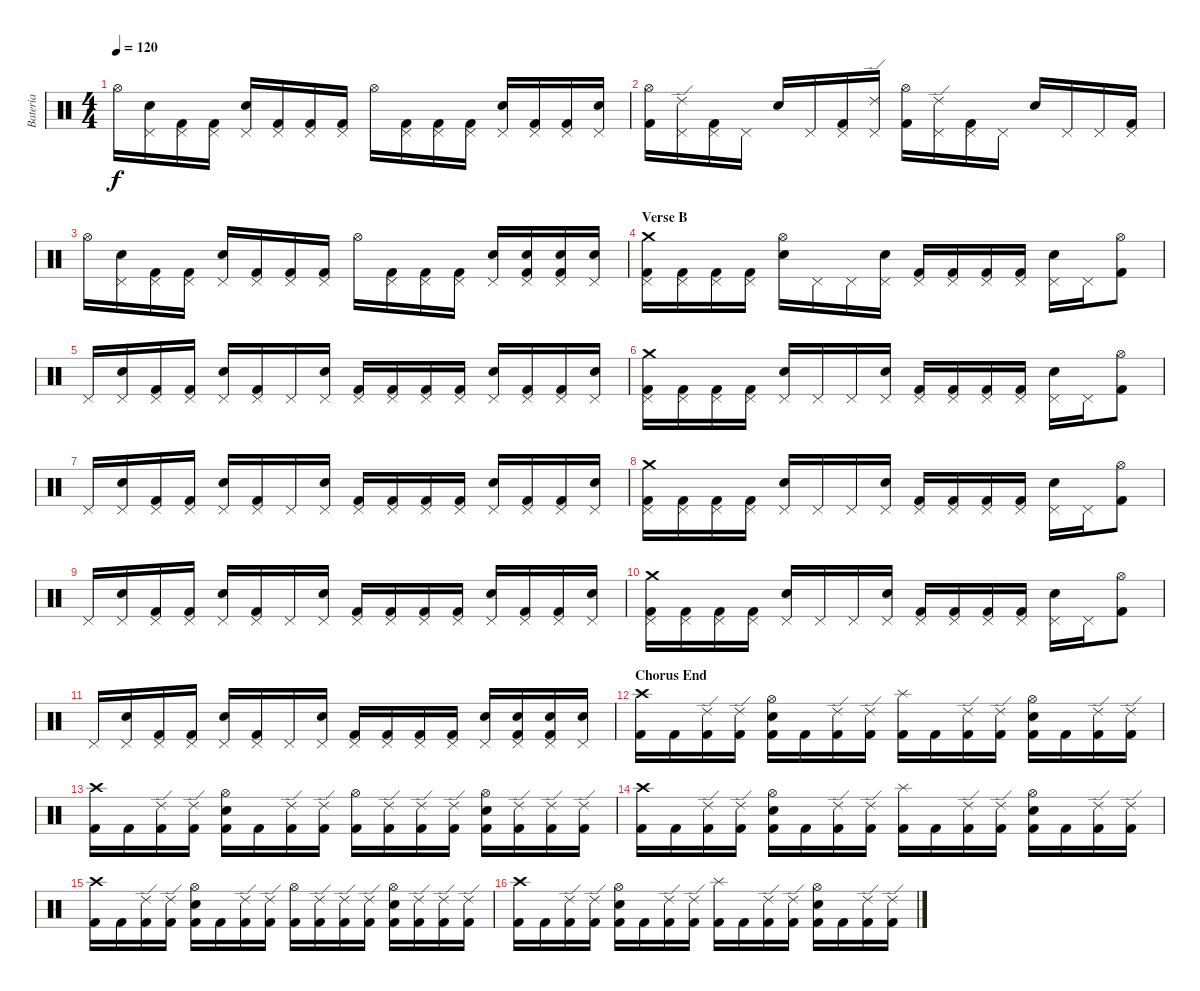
\track ("Bateria" "Bateria") {instrument percussion}
\staff {score}
\articulation defaults
\ts (4 4)
\tempo 120
\clef neutral
\ks c "Hi-Hat (open)".16{dy f}
("Snare (hit) 2" "Pedal Hi-Hat (hit)").16 ("Kick (hit) 2" "Pedal Hi-Hat (hit)").16 ("Kick (hit) 2" "Pedal Hi-Hat (hit)").16 ("Snare (hit) 2" "Pedal Hi-Hat (hit)").16 ("Kick (hit) 2" "Pedal Hi-Hat (hit)").16 ("Kick (hit) 2" "Pedal Hi-Hat (hit)").16 ("Kick (hit) 2" "Pedal Hi-Hat (hit)").16 "Hi-Hat (open)".16 ("Kick (hit) 2" "Pedal Hi-Hat (hit)").16 ("Kick (hit) 2" "Pedal Hi-Hat (hit)").16 ("Kick (hit) 2" "Pedal Hi-Hat (hit)").16 ("Snare (hit) 2" "Pedal Hi-Hat (hit)").16 ("Kick (hit) 2" "Pedal Hi-Hat (hit)").16 ("Kick (hit) 2" "Pedal Hi-Hat (hit)").16 ("Snare (hit) 2" "Pedal Hi-Hat (hit)").16 |
("Kick (hit) 2" "Hi-Hat (open)").16 ("Ride (edge) 2" "Pedal Hi-Hat (hit)").16 ("Kick (hit) 2" "Pedal Hi-Hat (hit)").16 "Pedal Hi-Hat (hit)".16 "Snare (hit) 2".16 "Pedal Hi-Hat (hit)".16 ("Kick (hit) 2" "Pedal Hi-Hat (hit)").16 ("Ride (edge) 2" "Pedal Hi-Hat (hit)").16 ("Kick (hit) 2" "Hi-Hat (open)").16 ("Ride (edge) 2" "Pedal Hi-Hat (hit)").16 ("Kick (hit) 2" "Pedal Hi-Hat (hit)").16 "Pedal Hi-Hat (hit)".16 "Snare (hit) 2".16 "Pedal Hi-Hat (hit)".16 "Pedal Hi-Hat (hit)".16 ("Kick (hit) 2" "Pedal Hi-Hat (hit)").16 |
"Hi-Hat (open)".16 ("Snare (hit) 2" "Pedal Hi-Hat (hit)").16 ("Kick (hit) 2" "Pedal Hi-Hat (hit)").16 ("Kick (hit) 2" "Pedal Hi-Hat (hit)").16 ("Snare (hit) 2" "Pedal Hi-Hat (hit)").16 ("Kick (hit) 2" "Pedal Hi-Hat (hit)").16 ("Kick (hit) 2" "Pedal Hi-Hat (hit)").16 ("Kick (hit) 2" "Pedal Hi-Hat (hit)").16 "Hi-Hat (open)".16 ("Kick (hit) 2" "Pedal Hi-Hat (hit)").16 ("Kick (hit) 2" "Pedal Hi-Hat (hit)").16 ("Kick (hit) 2" "Pedal Hi-Hat (hit)").16 ("Snare (hit) 2" "Pedal Hi-Hat (hit)").16 ("Kick (hit) 2" "Snare (hit) 2" "Pedal Hi-Hat (hit)").16 ("Kick (hit) 2" "Snare (hit) 2" "Pedal Hi-Hat (hit)").16 ("Snare (hit) 2" "Pedal Hi-Hat (hit)").16 |
\section ("" "Verse B")
("Kick (hit) 2" "Crash medium (hit)" "Pedal Hi-Hat (hit)").16 ("Kick (hit) 2" "Pedal Hi-Hat (hit)").16 ("Kick (hit) 2" "Pedal Hi-Hat (hit)").16 ("Kick (hit) 2" "Pedal Hi-Hat (hit)").16 ("Snare (hit) 2" "Hi-Hat (open)").16 "Pedal Hi-Hat (hit)".16 "Pedal Hi-Hat (hit)".16 ("Snare (hit) 2" "Pedal Hi-Hat (hit)").16 ("Kick (hit) 2" "Pedal Hi-Hat (hit)").16 ("Kick (hit) 2" "Pedal Hi-Hat (hit)").16 ("Kick (hit) 2" "Pedal Hi-Hat (hit)").16 ("Kick (hit) 2" "Pedal Hi-Hat (hit)").16 ("Snare (hit) 2" "Pedal Hi-Hat (hit)").16 "Pedal Hi-Hat (hit)".16 ("Kick (hit) 2" "Hi-Hat (open)").8 |
"Pedal Hi-Hat (hit)".16 ("Snare (hit) 2" "Pedal Hi-Hat (hit)").16 ("Kick (hit) 2" "Pedal Hi-Hat (hit)").16 ("Kick (hit) 2" "Pedal Hi-Hat (hit)").16 ("Snare (hit) 2" "Pedal Hi-Hat (hit)").16 ("Kick (hit) 2" "Pedal Hi-Hat (hit)").16 "Pedal Hi-Hat (hit)".16 ("Snare (hit) 2" "Pedal Hi-Hat (hit)").16 ("Kick (hit) 2" "Pedal Hi-Hat (hit)").16 ("Kick (hit) 2" "Pedal Hi-Hat (hit)").16 ("Kick (hit) 2" "Pedal Hi-Hat (hit)").16 ("Kick (hit) 2" "Pedal Hi-Hat (hit)").16 ("Snare (hit) 2" "Pedal Hi-Hat (hit)").16 ("Kick (hit) 2" "Pedal Hi-Hat (hit)").16 ("Kick (hit) 2" "Pedal Hi-Hat (hit)").16 ("Snare (hit) 2" "Pedal Hi-Hat (hit)").16 |
("Kick (hit) 2" "Crash medium (hit)" "Pedal Hi-Hat (hit)").16 ("Kick (hit) 2" "Pedal Hi-Hat (hit)").16 ("Kick (hit) 2" "Pedal Hi-Hat (hit)").16 ("Kick (hit) 2" "Pedal Hi-Hat (hit)").16 ("Snare (hit) 2" "Pedal Hi-Hat (hit)").16 "Pedal Hi-Hat (hit)".16 "Pedal Hi-Hat (hit)".16 ("Snare (hit) 2" "Pedal Hi-Hat (hit)").16 ("Kick (hit) 2" "Pedal Hi-Hat (hit)").16 ("Kick (hit) 2" "Pedal Hi-Hat (hit)").16 ("Kick (hit) 2" "Pedal Hi-Hat (hit)").16 ("Kick (hit) 2" "Pedal Hi-Hat (hit)").16 ("Snare (hit) 2" "Pedal Hi-Hat (hit)").16 "Pedal Hi-Hat (hit)".16 ("Kick (hit) 2" "Hi-Hat (open)").8 |
"Pedal Hi-Hat (hit)".16 ("Snare (hit) 2" "Pedal Hi-Hat (hit)").16 ("Kick (hit) 2" "Pedal Hi-Hat (hit)").16 ("Kick (hit) 2" "Pedal Hi-Hat (hit)").16 ("Snare (hit) 2" "Pedal Hi-Hat (hit)").16 ("Kick (hit) 2" "Pedal Hi-Hat (hit)").16 "Pedal Hi-Hat (hit)".16 ("Snare (hit) 2" "Pedal Hi-Hat (hit)").16 ("Kick (hit) 2" "Pedal Hi-Hat (hit)").16 ("Kick (hit) 2" "Pedal Hi-Hat (hit)").16 ("Kick (hit) 2" "Pedal Hi-Hat (hit)").16 ("Kick (hit) 2" "Pedal Hi-Hat (hit)").16 ("Snare (hit) 2" "Pedal Hi-Hat (hit)").16 ("Kick (hit) 2" "Pedal Hi-Hat (hit)").16 ("Kick (hit) 2" "Pedal Hi-Hat (hit)").16 ("Snare (hit) 2" "Pedal Hi-Hat (hit)").16 |
("Kick (hit) 2" "Crash medium (hit)" "Pedal Hi-Hat (hit)").16 ("Kick (hit) 2" "Pedal Hi-Hat (hit)").16 ("Kick (hit) 2" "Pedal Hi-Hat (hit)").16 ("Kick (hit) 2" "Pedal Hi-Hat (hit)").16 ("Snare (hit) 2" "Pedal Hi-Hat (hit)").16 "Pedal Hi-Hat (hit)".16 "Pedal Hi-Hat (hit)".16 ("Snare (hit) 2" "Pedal Hi-Hat (hit)").16 ("Kick (hit) 2" "Pedal Hi-Hat (hit)").16 ("Kick (hit) 2" "Pedal Hi-Hat (hit)").16 ("Kick (hit) 2" "Pedal Hi-Hat (hit)").16 ("Kick (hit) 2" "Pedal Hi-Hat (hit)").16 ("Snare (hit) 2" "Pedal Hi-Hat (hit)").16 "Pedal Hi-Hat (hit)".16 ("Kick (hit) 2" "Hi-Hat (open)").8 |
"Pedal Hi-Hat (hit)".16 ("Snare (hit) 2" "Pedal Hi-Hat (hit)").16 ("Kick (hit) 2" "Pedal Hi-Hat (hit)").16 ("Kick (hit) 2" "Pedal Hi-Hat (hit)").16 ("Snare (hit) 2" "Pedal Hi-Hat (hit)").16 ("Kick (hit) 2" "Pedal Hi-Hat (hit)").16 "Pedal Hi-Hat (hit)".16 ("Snare (hit) 2" "Pedal Hi-Hat (hit)").16 ("Kick (hit) 2" "Pedal Hi-Hat (hit)").16 ("Kick (hit) 2" "Pedal Hi-Hat (hit)").16 ("Kick (hit) 2" "Pedal Hi-Hat (hit)").16 ("Kick (hit) 2" "Pedal Hi-Hat (hit)").16 ("Snare (hit) 2" "Pedal Hi-Hat (hit)").16 ("Kick (hit) 2" "Pedal Hi-Hat (hit)").16 ("Kick (hit) 2" "Pedal Hi-Hat (hit)").16 ("Snare (hit) 2" "Pedal Hi-Hat (hit)").16 |
("Kick (hit) 2" "Crash medium (hit)" "Pedal Hi-Hat (hit)").16 ("Kick (hit) 2" "Pedal Hi-Hat (hit)").16 ("Kick (hit) 2" "Pedal Hi-Hat (hit)").16 ("Kick (hit) 2" "Pedal Hi-Hat (hit)").16 ("Snare (hit) 2" "Pedal Hi-Hat (hit)").16 "Pedal Hi-Hat (hit)".16 "Pedal Hi-Hat (hit)".16 ("Snare (hit) 2" "Pedal Hi-Hat (hit)").16 ("Kick (hit) 2" "Pedal Hi-Hat (hit)").16 ("Kick (hit) 2" "Pedal Hi-Hat (hit)").16 ("Kick (hit) 2" "Pedal Hi-Hat (hit)").16 ("Kick (hit) 2" "Pedal Hi-Hat (hit)").16 ("Snare (hit) 2" "Pedal Hi-Hat (hit)").16 "Pedal Hi-Hat (hit)".16 ("Kick (hit) 2" "Hi-Hat (open)").8 |
"Pedal Hi-Hat (hit)".16 ("Snare (hit) 2" "Pedal Hi-Hat (hit)").16 ("Kick (hit) 2" "Pedal Hi-Hat (hit)").16 ("Kick (hit) 2" "Pedal Hi-Hat (hit)").16 ("Snare (hit) 2" "Pedal Hi-Hat (hit)").16 ("Kick (hit) 2" "Pedal Hi-Hat (hit)").16 "Pedal Hi-Hat (hit)".16 ("Snare (hit) 2" "Pedal Hi-Hat (hit)").16 ("Kick (hit) 2" "Pedal Hi-Hat (hit)").16 ("Kick (hit) 2" "Pedal Hi-Hat (hit)").16 ("Kick (hit) 2" "Pedal Hi-Hat (hit)").16 ("Kick (hit) 2" "Pedal Hi-Hat (hit)").16 ("Snare (hit) 2" "Pedal Hi-Hat (hit)").16 ("Kick (hit) 2" "Snare (hit) 2" "Pedal Hi-Hat (hit)").16 ("Kick (hit) 2" "Snare (hit) 2" "Pedal Hi-Hat (hit)").16 ("Snare (hit) 2" "Pedal Hi-Hat (hit)").16 |
\section ("" "Chorus End")
("Kick (hit) 2" "Crash high (hit)").16 "Kick (hit) 2".16 ("Kick (hit) 2" "Ride (edge) 2").16 ("Kick (hit) 2" "Ride (edge) 2").16 ("Kick (hit) 2" "Snare (hit) 2" "Hi-Hat (open)").16 "Kick (hit) 2".16 ("Kick (hit) 2" "Ride (edge) 2").16 ("Kick (hit) 2" "Ride (edge) 2").16 ("Kick (hit) 2" "Splash (hit)").16 "Kick (hit) 2".16 ("Kick (hit) 2" "Ride (edge) 2").16 ("Kick (hit) 2" "Ride (edge) 2").16 ("Kick (hit) 2" "Snare (hit) 2" "Hi-Hat (open)").16 "Kick (hit) 2".16 ("Kick (hit) 2" "Ride (edge) 2").16 ("Kick (hit) 2" "Ride (edge) 2").16 |
("Kick (hit) 2" "Crash high (hit)").16 "Kick (hit) 2".16 ("Kick (hit) 2" "Ride (edge) 2").16 ("Kick (hit) 2" "Ride (edge) 2").16 ("Kick (hit) 2" "Snare (hit) 2" "Hi-Hat (open)").16 "Kick (hit) 2".16 ("Kick (hit) 2" "Ride (edge) 2").16 ("Kick (hit) 2" "Ride (edge) 2").16 ("Kick (hit) 2" "Hi-Hat (open)").16 ("Kick (hit) 2" "Ride (edge) 2").16 ("Kick (hit) 2" "Ride (edge) 2").16 ("Kick (hit) 2" "Ride (edge) 2").16 ("Kick (hit) 2" "Snare (hit) 2" "Hi-Hat (open)").16 ("Kick (hit) 2" "Ride (edge) 2").16 ("Kick (hit) 2" "Ride (edge) 2").16 ("Kick (hit) 2" "Ride (edge) 2").16 |
("Kick (hit) 2" "Crash high (hit)").16 "Kick (hit) 2".16 ("Kick (hit) 2" "Ride (edge) 2").16 ("Kick (hit) 2" "Ride (edge) 2").16 ("Kick (hit) 2" "Snare (hit) 2" "Hi-Hat (open)").16 "Kick (hit) 2".16 ("Kick (hit) 2" "Ride (edge) 2").16 ("Kick (hit) 2" "Ride (edge) 2").16 ("Kick (hit) 2" "Splash (hit)").16 "Kick (hit) 2".16 ("Kick (hit) 2" "Ride (edge) 2").16 ("Kick (hit) 2" "Ride (edge) 2").16 ("Kick (hit) 2" "Snare (hit) 2" "Hi-Hat (open)").16 "Kick (hit) 2".16 ("Kick (hit) 2" "Ride (edge) 2").16 ("Kick (hit) 2" "Ride (edge) 2").16 |
("Kick (hit) 2" "Crash high (hit)").16 "Kick (hit) 2".16 ("Kick (hit) 2" "Ride (edge) 2").16 ("Kick (hit) 2" "Ride (edge) 2").16 ("Kick (hit) 2" "Snare (hit) 2" "Hi-Hat (open)").16 "Kick (hit) 2".16 ("Kick (hit) 2" "Ride (edge) 2").16 ("Kick (hit) 2" "Ride (edge) 2").16 ("Kick (hit) 2" "Hi-Hat (open)").16 ("Kick (hit) 2" "Ride (edge) 2").16 ("Kick (hit) 2" "Ride (edge) 2").16 ("Kick (hit) 2" "Ride (edge) 2").16 ("Kick (hit) 2" "Snare (hit) 2" "Hi-Hat (open)").16 ("Kick (hit) 2" "Ride (edge) 2").16 ("Kick (hit) 2" "Ride (edge) 2").16 ("Kick (hit) 2" "Ride (edge) 2").16 |
("Kick (hit) 2" "Crash high (hit)").16 "Kick (hit) 2".16 ("Kick (hit) 2" "Ride (edge) 2").16 ("Kick (hit) 2" "Ride (edge) 2").16 ("Kick (hit) 2" "Snare (hit) 2" "Hi-Hat (open)").16 "Kick (hit) 2".16 ("Kick (hit) 2" "Ride (edge) 2").16 ("Kick (hit) 2" "Ride (edge) 2").16 ("Kick (hit) 2" "Splash (hit)").16 "Kick (hit) 2".16 ("Kick (hit) 2" "Ride (edge) 2").16 ("Kick (hit) 2" "Ride (edge) 2").16 ("Kick (hit) 2" "Snare (hit) 2" "Hi-Hat (open)").16 "Kick (hit) 2".16 ("Kick (hit) 2" "Ride (edge) 2").16 ("Kick (hit) 2" "Ride (edge) 2").16
